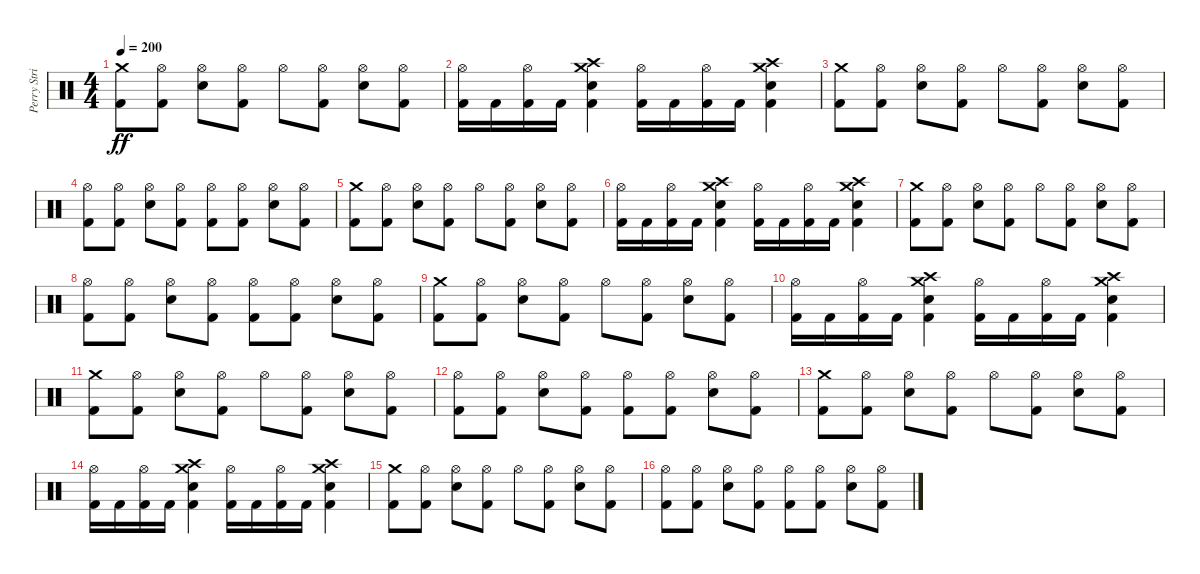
\track ("Perry Strickland" "Perry Stri") {instrument percussion}
\staff {score}
\articulation defaults
\ts (4 4)
\tempo 200
\clef neutral
\ks c
("Crash medium (hit)" "Kick (hit) 2").8{dy ff} ("Hi-Hat (open)" "Kick (hit) 2").8 ("Hi-Hat (open)" "Snare (hit) 2").8 ("Hi-Hat (open)" "Kick (hit) 2").8 "Hi-Hat (open)".8 ("Hi-Hat (open)" "Kick (hit) 2").8 ("Hi-Hat (open)" "Snare (hit) 2").8 ("Hi-Hat (open)" "Kick (hit) 2").8 |
("Hi-Hat (open)" "Kick (hit) 2").16 "Kick (hit) 2".16 ("Hi-Hat (open)" "Kick (hit) 2").16 "Kick (hit) 2".16 ("Crash high (hit)" "Crash medium (hit)" "Snare (hit) 2" "Kick (hit) 2").4 ("Hi-Hat (open)" "Kick (hit) 2").16 "Kick (hit) 2".16 ("Hi-Hat (open)" "Kick (hit) 2").16 "Kick (hit) 2".16 ("Crash high (hit)" "Crash medium (hit)" "Snare (hit) 2" "Kick (hit) 2").4 |
("Crash medium (hit)" "Kick (hit) 2").8 ("Hi-Hat (open)" "Kick (hit) 2").8 ("Hi-Hat (open)" "Snare (hit) 2").8 ("Hi-Hat (open)" "Kick (hit) 2").8 "Hi-Hat (open)".8 ("Hi-Hat (open)" "Kick (hit) 2").8 ("Hi-Hat (open)" "Snare (hit) 2").8 ("Hi-Hat (open)" "Kick (hit) 2").8 |
("Hi-Hat (open)" "Kick (hit) 2").8 ("Hi-Hat (open)" "Kick (hit) 2").8 ("Hi-Hat (open)" "Snare (hit) 2").8 ("Hi-Hat (open)" "Kick (hit) 2").8 ("Hi-Hat (open)" "Kick (hit) 2").8 ("Hi-Hat (open)" "Kick (hit) 2").8 ("Hi-Hat (open)" "Snare (hit) 2").8 ("Hi-Hat (open)" "Kick (hit) 2").8 |
("Crash medium (hit)" "Kick (hit) 2").8 ("Hi-Hat (open)" "Kick (hit) 2").8 ("Hi-Hat (open)" "Snare (hit) 2").8 ("Hi-Hat (open)" "Kick (hit) 2").8 "Hi-Hat (open)".8 ("Hi-Hat (open)" "Kick (hit) 2").8 ("Hi-Hat (open)" "Snare (hit) 2").8 ("Hi-Hat (open)" "Kick (hit) 2").8 |
("Hi-Hat (open)" "Kick (hit) 2").16 "Kick (hit) 2".16 ("Hi-Hat (open)" "Kick (hit) 2").16 "Kick (hit) 2".16 ("Crash high (hit)" "Crash medium (hit)" "Snare (hit) 2" "Kick (hit) 2").4 ("Hi-Hat (open)" "Kick (hit) 2").16 "Kick (hit) 2".16 ("Hi-Hat (open)" "Kick (hit) 2").16 "Kick (hit) 2".16 ("Crash high (hit)" "Crash medium (hit)" "Snare (hit) 2" "Kick (hit) 2").4 |
("Crash medium (hit)" "Kick (hit) 2").8 ("Hi-Hat (open)" "Kick (hit) 2").8 ("Hi-Hat (open)" "Snare (hit) 2").8 ("Hi-Hat (open)" "Kick (hit) 2").8 "Hi-Hat (open)".8 ("Hi-Hat (open)" "Kick (hit) 2").8 ("Hi-Hat (open)" "Snare (hit) 2").8 ("Hi-Hat (open)" "Kick (hit) 2").8 |
("Hi-Hat (open)" "Kick (hit) 2").8 ("Hi-Hat (open)" "Kick (hit) 2").8 ("Hi-Hat (open)" "Snare (hit) 2").8 ("Hi-Hat (open)" "Kick (hit) 2").8 ("Hi-Hat (open)" "Kick (hit) 2").8 ("Hi-Hat (open)" "Kick (hit) 2").8 ("Hi-Hat (open)" "Snare (hit) 2").8 ("Hi-Hat (open)" "Kick (hit) 2").8 |
("Crash medium (hit)" "Kick (hit) 2").8 ("Hi-Hat (open)" "Kick (hit) 2").8 ("Hi-Hat (open)" "Snare (hit) 2").8 ("Hi-Hat (open)" "Kick (hit) 2").8 "Hi-Hat (open)".8 ("Hi-Hat (open)" "Kick (hit) 2").8 ("Hi-Hat (open)" "Snare (hit) 2").8 ("Hi-Hat (open)" "Kick (hit) 2").8 |
("Hi-Hat (open)" "Kick (hit) 2").16 "Kick (hit) 2".16 ("Hi-Hat (open)" "Kick (hit) 2").16 "Kick (hit) 2".16 ("Crash high (hit)" "Crash medium (hit)" "Snare (hit) 2" "Kick (hit) 2").4 ("Hi-Hat (open)" "Kick (hit) 2").16 "Kick (hit) 2".16 ("Hi-Hat (open)" "Kick (hit) 2").16 "Kick (hit) 2".16 ("Crash high (hit)" "Crash medium (hit)" "Snare (hit) 2" "Kick (hit) 2").4 |
("Crash medium (hit)" "Kick (hit) 2").8 ("Hi-Hat (open)" "Kick (hit) 2").8 ("Hi-Hat (open)" "Snare (hit) 2").8 ("Hi-Hat (open)" "Kick (hit) 2").8 "Hi-Hat (open)".8 ("Hi-Hat (open)" "Kick (hit) 2").8 ("Hi-Hat (open)" "Snare (hit) 2").8 ("Hi-Hat (open)" "Kick (hit) 2").8 |
("Hi-Hat (open)" "Kick (hit) 2").8 ("Hi-Hat (open)" "Kick (hit) 2").8 ("Hi-Hat (open)" "Snare (hit) 2").8 ("Hi-Hat (open)" "Kick (hit) 2").8 ("Hi-Hat (open)" "Kick (hit) 2").8 ("Hi-Hat (open)" "Kick (hit) 2").8 ("Hi-Hat (open)" "Snare (hit) 2").8 ("Hi-Hat (open)" "Kick (hit) 2").8 |
("Crash medium (hit)" "Kick (hit) 2").8 ("Hi-Hat (open)" "Kick (hit) 2").8 ("Hi-Hat (open)" "Snare (hit) 2").8 ("Hi-Hat (open)" "Kick (hit) 2").8 "Hi-Hat (open)".8 ("Hi-Hat (open)" "Kick (hit) 2").8 ("Hi-Hat (open)" "Snare (hit) 2").8 ("Hi-Hat (open)" "Kick (hit) 2").8 |
("Hi-Hat (open)" "Kick (hit) 2").16 "Kick (hit) 2".16 ("Hi-Hat (open)" "Kick (hit) 2").16 "Kick (hit) 2".16 ("Crash high (hit)" "Crash medium (hit)" "Snare (hit) 2" "Kick (hit) 2").4 ("Hi-Hat (open)" "Kick (hit) 2").16 "Kick (hit) 2".16 ("Hi-Hat (open)" "Kick (hit) 2").16 "Kick (hit) 2".16 ("Crash high (hit)" "Crash medium (hit)" "Snare (hit) 2" "Kick (hit) 2").4 |
("Crash medium (hit)" "Kick (hit) 2").8 ("Hi-Hat (open)" "Kick (hit) 2").8 ("Hi-Hat (open)" "Snare (hit) 2").8 ("Hi-Hat (open)" "Kick (hit) 2").8 "Hi-Hat (open)".8 ("Hi-Hat (open)" "Kick (hit) 2").8 ("Hi-Hat (open)" "Snare (hit) 2").8 ("Hi-Hat (open)" "Kick (hit) 2").8 |
("Hi-Hat (open)" "Kick (hit) 2").8 ("Hi-Hat (open)" "Kick (hit) 2").8 ("Hi-Hat (open)" "Snare (hit) 2").8 ("Hi-Hat (open)" "Kick (hit) 2").8 ("Hi-Hat (open)" "Kick (hit) 2").8 ("Hi-Hat (open)" "Kick (hit) 2").8 ("Hi-Hat (open)" "Snare (hit) 2").8 ("Hi-Hat (open)" "Kick (hit) 2").8
